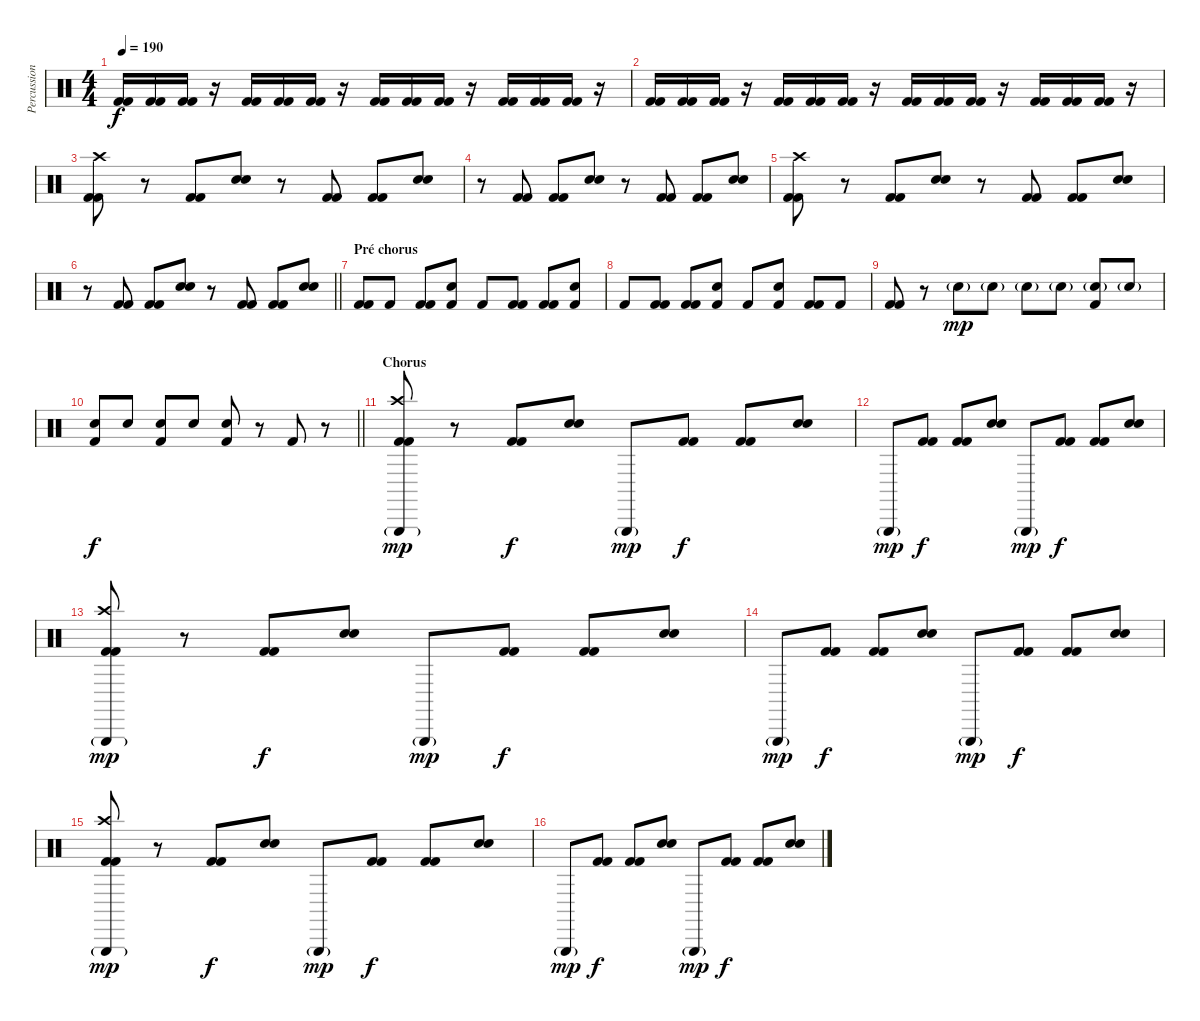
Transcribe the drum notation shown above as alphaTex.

\track ("Percussions" "Percussion") {instrument percussion}
\staff {score}
\articulation defaults
\ts (4 4)
\tempo 190
\clef neutral
\ks c
("Kick (hit) 2" "Kick (hit) 2").16{dy f} ("Kick (hit) 2" "Kick (hit) 2").16 ("Kick (hit) 2" "Kick (hit) 2").16 r.16 ("Kick (hit) 2" "Kick (hit) 2").16 ("Kick (hit) 2" "Kick (hit) 2").16 ("Kick (hit) 2" "Kick (hit) 2").16 r.16 ("Kick (hit) 2" "Kick (hit) 2").16 ("Kick (hit) 2" "Kick (hit) 2").16 ("Kick (hit) 2" "Kick (hit) 2").16 r.16 ("Kick (hit) 2" "Kick (hit) 2").16 ("Kick (hit) 2" "Kick (hit) 2").16 ("Kick (hit) 2" "Kick (hit) 2").16 r.16 |
("Kick (hit) 2" "Kick (hit) 2").16 ("Kick (hit) 2" "Kick (hit) 2").16 ("Kick (hit) 2" "Kick (hit) 2").16 r.16 ("Kick (hit) 2" "Kick (hit) 2").16 ("Kick (hit) 2" "Kick (hit) 2").16 ("Kick (hit) 2" "Kick (hit) 2").16 r.16 ("Kick (hit) 2" "Kick (hit) 2").16 ("Kick (hit) 2" "Kick (hit) 2").16 ("Kick (hit) 2" "Kick (hit) 2").16 r.16 ("Kick (hit) 2" "Kick (hit) 2").16 ("Kick (hit) 2" "Kick (hit) 2").16 ("Kick (hit) 2" "Kick (hit) 2").16 r.16 |
("Kick (hit) 2" "Kick (hit) 2" "Crash high (hit)").8 r.8 ("Kick (hit) 2" "Kick (hit) 2").8 ("Snare (hit) 2" "Snare (hit) 2").8 r.8 ("Kick (hit) 2" "Kick (hit) 2").8 ("Kick (hit) 2" "Kick (hit) 2").8 ("Snare (hit) 2" "Snare (hit) 2").8 |
r.8 ("Kick (hit) 2" "Kick (hit) 2").8 ("Kick (hit) 2" "Kick (hit) 2").8 ("Snare (hit) 2" "Snare (hit) 2").8 r.8 ("Kick (hit) 2" "Kick (hit) 2").8 ("Kick (hit) 2" "Kick (hit) 2").8 ("Snare (hit) 2" "Snare (hit) 2").8 |
("Kick (hit) 2" "Kick (hit) 2" "Crash high (hit)").8 r.8 ("Kick (hit) 2" "Kick (hit) 2").8 ("Snare (hit) 2" "Snare (hit) 2").8 r.8 ("Kick (hit) 2" "Kick (hit) 2").8 ("Kick (hit) 2" "Kick (hit) 2").8 ("Snare (hit) 2" "Snare (hit) 2").8 |
\barLineRight lightlight
r.8 ("Kick (hit) 2" "Kick (hit) 2").8 ("Kick (hit) 2" "Kick (hit) 2").8 ("Snare (hit) 2" "Snare (hit) 2").8 r.8 ("Kick (hit) 2" "Kick (hit) 2").8 ("Kick (hit) 2" "Kick (hit) 2").8 ("Snare (hit) 2" "Snare (hit) 2").8 |
\section ("" "Pré chorus")
("Kick (hit) 2" "Kick (hit) 2").8 "Kick (hit) 2".8 ("Kick (hit) 2" "Kick (hit) 2").8 ("Snare (hit) 2" "Kick (hit) 2").8 "Kick (hit) 2".8 ("Kick (hit) 2" "Kick (hit) 2").8 ("Kick (hit) 2" "Kick (hit) 2").8 ("Snare (hit) 2" "Kick (hit) 2").8 |
"Kick (hit) 2".8 ("Kick (hit) 2" "Kick (hit) 2").8 ("Kick (hit) 2" "Kick (hit) 2").8 ("Snare (hit) 2" "Kick (hit) 2").8 "Kick (hit) 2".8 ("Electric Snare (hit)" "Kick (hit) 2").8 ("Kick (hit) 2" "Kick (hit) 2").8 "Kick (hit) 2".8 |
("Kick (hit) 2" "Kick (hit) 2").8 r.8 "Electric Snare (hit)"{g}.8{dy mp volume 6} "Electric Snare (hit)"{g}.8{volume 8} "Electric Snare (hit)"{g}.8{volume 10} "Electric Snare (hit)"{g}.8{volume 12} ("Electric Snare (hit)"{g} "Kick (hit) 2").8{volume 14} "Electric Snare (hit)"{g}.8{volume 16} |
\barLineRight lightlight
("Electric Snare (hit)" "Kick (hit) 2").8{dy f} "Electric Snare (hit)".8 ("Kick (hit) 2" "Electric Snare (hit)").8 "Electric Snare (hit)".8 ("Kick (hit) 2" "Electric Snare (hit)").8 r.8 "Kick (hit) 2".8 r.8 |
\section ("" "Chorus")
("Kick (hit) 2" "Kick (hit) 2" "Crash high (hit)" "Triangle (hit)"{g}).8{dy mp} r.8 ("Kick (hit) 2" "Kick (hit) 2").8{dy f} ("Snare (hit) 2" "Snare (hit) 2").8 "Triangle (hit)"{g}.8{dy mp} ("Kick (hit) 2" "Kick (hit) 2").8{dy f} ("Kick (hit) 2" "Kick (hit) 2").8 ("Snare (hit) 2" "Snare (hit) 2").8 |
"Triangle (hit)"{g}.8{dy mp} ("Kick (hit) 2" "Kick (hit) 2").8{dy f} ("Kick (hit) 2" "Kick (hit) 2").8 ("Snare (hit) 2" "Snare (hit) 2").8 "Triangle (hit)"{g}.8{dy mp} ("Kick (hit) 2" "Kick (hit) 2").8{dy f} ("Kick (hit) 2" "Kick (hit) 2").8 ("Snare (hit) 2" "Snare (hit) 2").8 |
("Kick (hit) 2" "Kick (hit) 2" "Crash high (hit)" "Triangle (hit)"{g}).8{dy mp} r.8 ("Kick (hit) 2" "Kick (hit) 2").8{dy f} ("Snare (hit) 2" "Snare (hit) 2").8 "Triangle (hit)"{g}.8{dy mp} ("Kick (hit) 2" "Kick (hit) 2").8{dy f} ("Kick (hit) 2" "Kick (hit) 2").8 ("Snare (hit) 2" "Snare (hit) 2").8 |
"Triangle (hit)"{g}.8{dy mp} ("Kick (hit) 2" "Kick (hit) 2").8{dy f} ("Kick (hit) 2" "Kick (hit) 2").8 ("Snare (hit) 2" "Snare (hit) 2").8 "Triangle (hit)"{g}.8{dy mp} ("Kick (hit) 2" "Kick (hit) 2").8{dy f} ("Kick (hit) 2" "Kick (hit) 2").8 ("Snare (hit) 2" "Snare (hit) 2").8 |
("Kick (hit) 2" "Kick (hit) 2" "Crash high (hit)" "Triangle (hit)"{g}).8{dy mp} r.8 ("Kick (hit) 2" "Kick (hit) 2").8{dy f} ("Snare (hit) 2" "Snare (hit) 2").8 "Triangle (hit)"{g}.8{dy mp} ("Kick (hit) 2" "Kick (hit) 2").8{dy f} ("Kick (hit) 2" "Kick (hit) 2").8 ("Snare (hit) 2" "Snare (hit) 2").8 |
"Triangle (hit)"{g}.8{dy mp} ("Kick (hit) 2" "Kick (hit) 2").8{dy f} ("Kick (hit) 2" "Kick (hit) 2").8 ("Snare (hit) 2" "Snare (hit) 2").8 "Triangle (hit)"{g}.8{dy mp} ("Kick (hit) 2" "Kick (hit) 2").8{dy f} ("Kick (hit) 2" "Kick (hit) 2").8 ("Snare (hit) 2" "Snare (hit) 2").8
